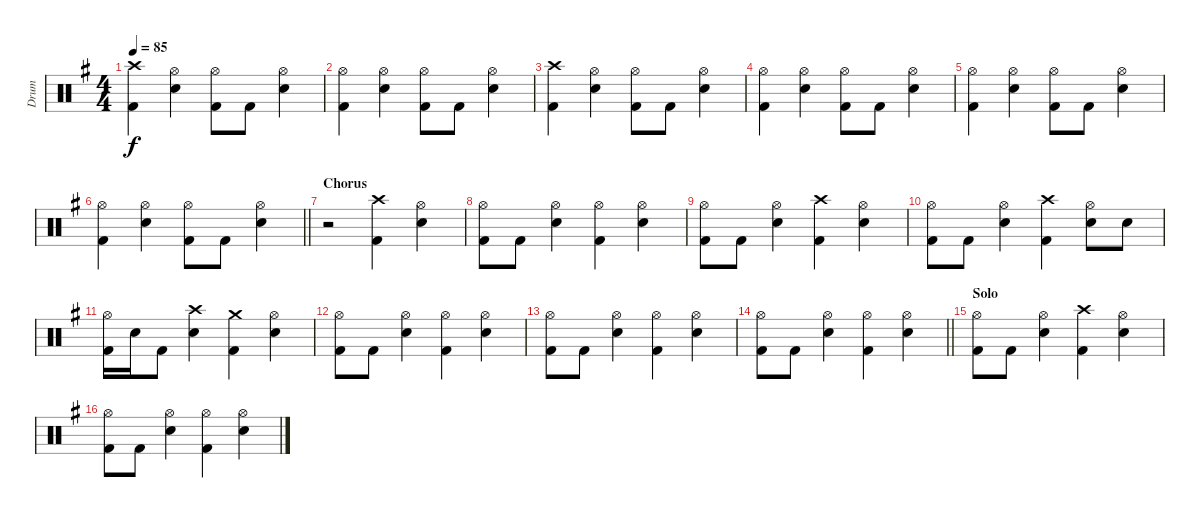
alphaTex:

\track ("Drum" "Drum") {instrument percussion}
\staff {score}
\articulation defaults
\ts (4 4)
\tempo 85
\clef neutral
\ks g
("Crash high (hit)" "Kick (hit) 2").4{dy f} ("Electric Snare (hit)" "Hi-Hat (open)").4 ("Kick (hit) 2" "Hi-Hat (open)").8 "Kick (hit) 2".8 ("Electric Snare (hit)" "Hi-Hat (open)").4 |
("Kick (hit) 2" "Hi-Hat (open)").4 ("Electric Snare (hit)" "Hi-Hat (open)").4 ("Kick (hit) 2" "Hi-Hat (open)").8 "Kick (hit) 2".8 ("Electric Snare (hit)" "Hi-Hat (open)").4 |
("Crash high (hit)" "Kick (hit) 2").4 ("Electric Snare (hit)" "Hi-Hat (open)").4 ("Kick (hit) 2" "Hi-Hat (open)").8 "Kick (hit) 2".8 ("Electric Snare (hit)" "Hi-Hat (open)").4 |
("Kick (hit) 2" "Hi-Hat (open)").4 ("Electric Snare (hit)" "Hi-Hat (open)").4 ("Kick (hit) 2" "Hi-Hat (open)").8 "Kick (hit) 2".8 ("Electric Snare (hit)" "Hi-Hat (open)").4 |
("Kick (hit) 2" "Hi-Hat (open)").4 ("Electric Snare (hit)" "Hi-Hat (open)").4 ("Kick (hit) 2" "Hi-Hat (open)").8 "Kick (hit) 2".8 ("Electric Snare (hit)" "Hi-Hat (open)").4 |
\barLineRight lightlight
("Kick (hit) 2" "Hi-Hat (open)").4 ("Electric Snare (hit)" "Hi-Hat (open)").4 ("Kick (hit) 2" "Hi-Hat (open)").8 "Kick (hit) 2".8 ("Electric Snare (hit)" "Hi-Hat (open)").4 |
\section ("" "Chorus")
r.2 ("Crash high (hit)" "Kick (hit) 2").4 ("Electric Snare (hit)" "Hi-Hat (open)").4 |
("Kick (hit) 2" "Hi-Hat (open)").8 "Kick (hit) 2".8 ("Electric Snare (hit)" "Hi-Hat (open)").4 ("Kick (hit) 2" "Hi-Hat (open)").4 ("Electric Snare (hit)" "Hi-Hat (open)").4 |
("Kick (hit) 2" "Hi-Hat (open)").8 "Kick (hit) 2".8 ("Electric Snare (hit)" "Hi-Hat (open)").4 ("Kick (hit) 2" "Crash high (hit)").4 ("Electric Snare (hit)" "Hi-Hat (open)").4 |
("Kick (hit) 2" "Hi-Hat (open)").8 "Kick (hit) 2".8 ("Electric Snare (hit)" "Hi-Hat (open)").4 ("Kick (hit) 2" "Crash high (hit)").4 ("Electric Snare (hit)" "Hi-Hat (open)").8 "Electric Snare (hit)".8 |
("Kick (hit) 2" "Hi-Hat (open)").16 "Electric Snare (hit)".16 "Kick (hit) 2".8 ("Electric Snare (hit)" "Crash high (hit)").4 ("Kick (hit) 2" "Crash medium (hit)").4 ("Electric Snare (hit)" "Hi-Hat (open)").4 |
("Kick (hit) 2" "Hi-Hat (open)").8 "Kick (hit) 2".8 ("Electric Snare (hit)" "Hi-Hat (open)").4 ("Kick (hit) 2" "Hi-Hat (open)").4 ("Electric Snare (hit)" "Hi-Hat (open)").4 |
("Kick (hit) 2" "Hi-Hat (open)").8 "Kick (hit) 2".8 ("Electric Snare (hit)" "Hi-Hat (open)").4 ("Kick (hit) 2" "Hi-Hat (open)").4 ("Electric Snare (hit)" "Hi-Hat (open)").4 |
\barLineRight lightlight
("Kick (hit) 2" "Hi-Hat (open)").8 "Kick (hit) 2".8 ("Electric Snare (hit)" "Hi-Hat (open)").4 ("Kick (hit) 2" "Hi-Hat (open)").4 ("Electric Snare (hit)" "Hi-Hat (open)").4 |
\section ("" "Solo")
("Kick (hit) 2" "Hi-Hat (open)").8 "Kick (hit) 2".8 ("Electric Snare (hit)" "Hi-Hat (open)").4 ("Crash high (hit)" "Kick (hit) 2").4 ("Electric Snare (hit)" "Hi-Hat (open)").4 |
("Kick (hit) 2" "Hi-Hat (open)").8 "Kick (hit) 2".8 ("Electric Snare (hit)" "Hi-Hat (open)").4 ("Kick (hit) 2" "Hi-Hat (open)").4 ("Electric Snare (hit)" "Hi-Hat (open)").4
